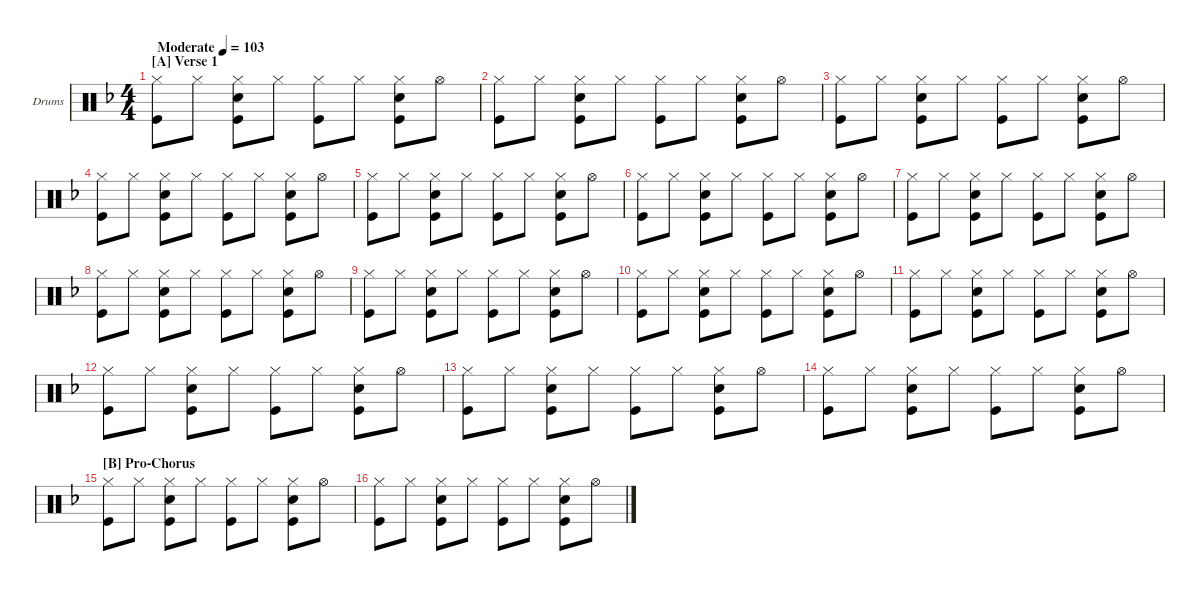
\hideDynamics
\bracketExtendMode groupsimilarinstruments
\firstSystemTrackNameOrientation horizontal
\otherSystemsTrackNameOrientation horizontal
\track ("Drumkit" "Drums") {multiBarRest instrument percussion}
\staff {score}
\articulation defaults
\ts (4 4)
\section ("A" "Verse 1")
\tempo (103 "Moderate")
\clef neutral
\ks f
("Hi-Hat (closed)" "Kick (hit)").8{dy f} "Hi-Hat (closed)".8 ("Hi-Hat (closed)" "Snare (hit) 2" "Kick (hit)").8 "Hi-Hat (closed)".8 ("Hi-Hat (closed)" "Kick (hit)").8 "Hi-Hat (closed)".8 ("Hi-Hat (closed)" "Snare (hit) 2" "Kick (hit)").8 "Hi-Hat (open)".8 |
("Hi-Hat (closed)" "Kick (hit)").8 "Hi-Hat (closed)".8 ("Hi-Hat (closed)" "Snare (hit) 2" "Kick (hit)").8 "Hi-Hat (closed)".8 ("Hi-Hat (closed)" "Kick (hit)").8 "Hi-Hat (closed)".8 ("Hi-Hat (closed)" "Snare (hit) 2" "Kick (hit)").8 "Hi-Hat (open)".8 |
("Hi-Hat (closed)" "Kick (hit)").8 "Hi-Hat (closed)".8 ("Hi-Hat (closed)" "Snare (hit) 2" "Kick (hit)").8 "Hi-Hat (closed)".8 ("Hi-Hat (closed)" "Kick (hit)").8 "Hi-Hat (closed)".8 ("Hi-Hat (closed)" "Snare (hit) 2" "Kick (hit)").8 "Hi-Hat (open)".8 |
("Hi-Hat (closed)" "Kick (hit)").8 "Hi-Hat (closed)".8 ("Hi-Hat (closed)" "Snare (hit) 2" "Kick (hit)").8 "Hi-Hat (closed)".8 ("Hi-Hat (closed)" "Kick (hit)").8 "Hi-Hat (closed)".8 ("Hi-Hat (closed)" "Snare (hit) 2" "Kick (hit)").8 "Hi-Hat (open)".8 |
("Hi-Hat (closed)" "Kick (hit)").8 "Hi-Hat (closed)".8 ("Hi-Hat (closed)" "Snare (hit) 2" "Kick (hit)").8 "Hi-Hat (closed)".8 ("Hi-Hat (closed)" "Kick (hit)").8 "Hi-Hat (closed)".8 ("Hi-Hat (closed)" "Snare (hit) 2" "Kick (hit)").8 "Hi-Hat (open)".8 |
("Hi-Hat (closed)" "Kick (hit)").8 "Hi-Hat (closed)".8 ("Hi-Hat (closed)" "Snare (hit) 2" "Kick (hit)").8 "Hi-Hat (closed)".8 ("Hi-Hat (closed)" "Kick (hit)").8 "Hi-Hat (closed)".8 ("Hi-Hat (closed)" "Snare (hit) 2" "Kick (hit)").8 "Hi-Hat (open)".8 |
("Hi-Hat (closed)" "Kick (hit)").8 "Hi-Hat (closed)".8 ("Hi-Hat (closed)" "Snare (hit) 2" "Kick (hit)").8 "Hi-Hat (closed)".8 ("Hi-Hat (closed)" "Kick (hit)").8 "Hi-Hat (closed)".8 ("Hi-Hat (closed)" "Snare (hit) 2" "Kick (hit)").8 "Hi-Hat (open)".8 |
("Hi-Hat (closed)" "Kick (hit)").8 "Hi-Hat (closed)".8 ("Hi-Hat (closed)" "Snare (hit) 2" "Kick (hit)").8 "Hi-Hat (closed)".8 ("Hi-Hat (closed)" "Kick (hit)").8 "Hi-Hat (closed)".8 ("Hi-Hat (closed)" "Snare (hit) 2" "Kick (hit)").8 "Hi-Hat (open)".8 |
("Hi-Hat (closed)" "Kick (hit)").8 "Hi-Hat (closed)".8 ("Hi-Hat (closed)" "Snare (hit) 2" "Kick (hit)").8 "Hi-Hat (closed)".8 ("Hi-Hat (closed)" "Kick (hit)").8 "Hi-Hat (closed)".8 ("Hi-Hat (closed)" "Snare (hit) 2" "Kick (hit)").8 "Hi-Hat (open)".8 |
("Hi-Hat (closed)" "Kick (hit)").8 "Hi-Hat (closed)".8 ("Hi-Hat (closed)" "Snare (hit) 2" "Kick (hit)").8 "Hi-Hat (closed)".8 ("Hi-Hat (closed)" "Kick (hit)").8 "Hi-Hat (closed)".8 ("Hi-Hat (closed)" "Snare (hit) 2" "Kick (hit)").8 "Hi-Hat (open)".8 |
("Hi-Hat (closed)" "Kick (hit)").8 "Hi-Hat (closed)".8 ("Hi-Hat (closed)" "Snare (hit) 2" "Kick (hit)").8 "Hi-Hat (closed)".8 ("Hi-Hat (closed)" "Kick (hit)").8 "Hi-Hat (closed)".8 ("Hi-Hat (closed)" "Snare (hit) 2" "Kick (hit)").8 "Hi-Hat (open)".8 |
("Hi-Hat (closed)" "Kick (hit)").8 "Hi-Hat (closed)".8 ("Hi-Hat (closed)" "Snare (hit) 2" "Kick (hit)").8 "Hi-Hat (closed)".8 ("Hi-Hat (closed)" "Kick (hit)").8 "Hi-Hat (closed)".8 ("Hi-Hat (closed)" "Snare (hit) 2" "Kick (hit)").8 "Hi-Hat (open)".8 |
("Hi-Hat (closed)" "Kick (hit)").8 "Hi-Hat (closed)".8 ("Hi-Hat (closed)" "Snare (hit) 2" "Kick (hit)").8 "Hi-Hat (closed)".8 ("Hi-Hat (closed)" "Kick (hit)").8 "Hi-Hat (closed)".8 ("Hi-Hat (closed)" "Snare (hit) 2" "Kick (hit)").8 "Hi-Hat (open)".8 |
("Hi-Hat (closed)" "Kick (hit)").8 "Hi-Hat (closed)".8 ("Hi-Hat (closed)" "Snare (hit) 2" "Kick (hit)").8 "Hi-Hat (closed)".8 ("Hi-Hat (closed)" "Kick (hit)").8 "Hi-Hat (closed)".8 ("Hi-Hat (closed)" "Snare (hit) 2" "Kick (hit)").8 "Hi-Hat (open)".8 |
\section ("B" "Pro-Chorus")
("Hi-Hat (closed)" "Kick (hit)").8 "Hi-Hat (closed)".8 ("Hi-Hat (closed)" "Snare (hit) 2" "Kick (hit)").8 "Hi-Hat (closed)".8 ("Hi-Hat (closed)" "Kick (hit)").8 "Hi-Hat (closed)".8 ("Hi-Hat (closed)" "Snare (hit) 2" "Kick (hit)").8 "Hi-Hat (open)".8 |
("Hi-Hat (closed)" "Kick (hit)").8 "Hi-Hat (closed)".8 ("Hi-Hat (closed)" "Snare (hit) 2" "Kick (hit)").8 "Hi-Hat (closed)".8 ("Hi-Hat (closed)" "Kick (hit)").8 "Hi-Hat (closed)".8 ("Hi-Hat (closed)" "Snare (hit) 2" "Kick (hit)").8 "Hi-Hat (open)".8
